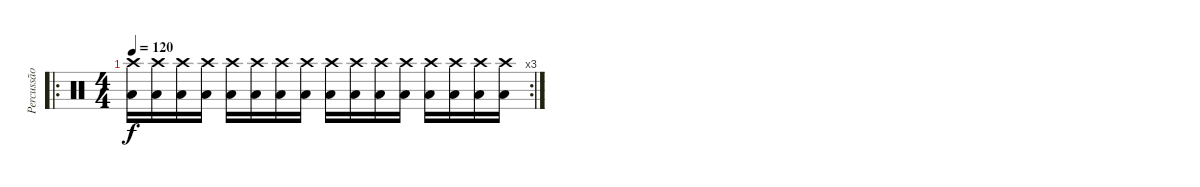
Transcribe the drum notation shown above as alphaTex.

\track ("Percussão" "Percussão") {instrument percussion}
\staff {score}
\articulation defaults
\ro
\rc 3
\ts (4 4)
\tempo 120
\clef neutral
\ks c
("Low Floor Tom (hit)" "Crash high (hit)").16{dy f} ("Low Floor Tom (hit)" "Crash high (hit)").16 ("Low Floor Tom (hit)" "Crash high (hit)").16 ("Low Floor Tom (hit)" "Crash high (hit)").16 ("Low Floor Tom (hit)" "Crash high (hit)").16 ("Low Floor Tom (hit)" "Crash high (hit)").16 ("Low Floor Tom (hit)" "Crash high (hit)").16 ("Low Floor Tom (hit)" "Crash high (hit)").16 ("Low Floor Tom (hit)" "Crash high (hit)").16 ("Low Floor Tom (hit)" "Crash high (hit)").16 ("Low Floor Tom (hit)" "Crash high (hit)").16 ("Low Floor Tom (hit)" "Crash high (hit)").16 ("Low Floor Tom (hit)" "Crash high (hit)").16 ("Low Floor Tom (hit)" "Crash high (hit)").16 ("Low Floor Tom (hit)" "Crash high (hit)").16 ("Low Floor Tom (hit)" "Crash high (hit)").16
